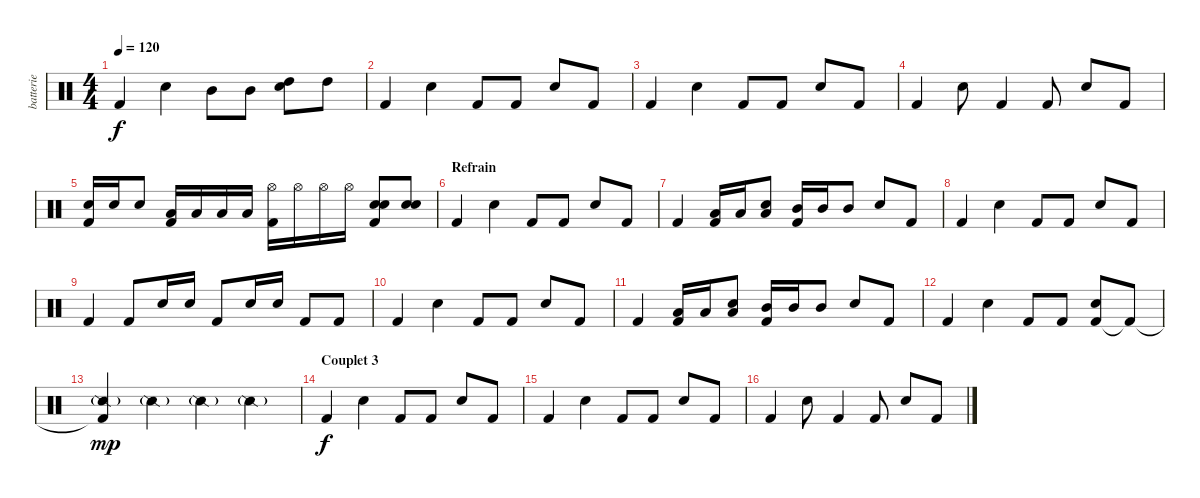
\track ("batterie" "batterie") {instrument percussion}
\staff {score}
\articulation defaults
\ts (4 4)
\tempo 120
\clef neutral
\ks c "Kick (hit) 2".4{dy f} "Electric Snare (hit)".4 "Mid Tom (hit)".8 "Mid Tom (hit)".8
("Electric Snare (hit)" "High Tom (hit)").8 "High Tom (hit)".8 |
"Kick (hit) 2".4 "Electric Snare (hit)".4 "Kick (hit) 2".8 "Kick (hit) 2".8 "Electric Snare (hit)".8 "Kick (hit) 2".8 |
"Kick (hit) 2".4 "Electric Snare (hit)".4 "Kick (hit) 2".8 "Kick (hit) 2".8 "Electric Snare (hit)".8 "Kick (hit) 2".8 |
"Kick (hit) 2".4 "Electric Snare (hit)".8 "Kick (hit) 2".4 "Kick (hit) 2".8 "Electric Snare (hit)".8 "Kick (hit) 2".8 |
("Kick (hit) 2" "Electric Snare (hit)").16 "Electric Snare (hit)".16 "Electric Snare (hit)".8 ("Kick (hit) 2" "Low Tom (hit)").16 "Low Tom (hit)".16 "Low Tom (hit)".16 "Low Tom (hit)".16 ("Kick (hit) 2" "Hi-Hat (open)").16 "Hi-Hat (open)".16 "Hi-Hat (open)".16 "Hi-Hat (open)".16 ("Kick (hit) 2" "Electric Snare (hit)" "Electric Snare (hit)").8 ("Electric Snare (hit)" "Electric Snare (hit)").8 |
\section ("" "Refrain")
"Kick (hit) 2".4 "Electric Snare (hit)".4 "Kick (hit) 2".8 "Kick (hit) 2".8 "Electric Snare (hit)".8 "Kick (hit) 2".8 |
"Kick (hit) 2".4 ("Kick (hit) 2" "Low Tom (hit)").16 "Low Tom (hit)".16 ("Electric Snare (hit)" "Low Tom (hit)").8 ("Kick (hit) 2" "Mid Tom (hit)").16 "Mid Tom (hit)".16 "Mid Tom (hit)".8 "Electric Snare (hit)".8 "Kick (hit) 2".8 |
"Kick (hit) 2".4 "Electric Snare (hit)".4 "Kick (hit) 2".8 "Kick (hit) 2".8 "Electric Snare (hit)".8 "Kick (hit) 2".8 |
"Kick (hit) 2".4 "Kick (hit) 2".8 "Electric Snare (hit)".16 "Electric Snare (hit)".16 "Kick (hit) 2".8 "Electric Snare (hit)".16 "Electric Snare (hit)".16 "Kick (hit) 2".8 "Kick (hit) 2".8 |
"Kick (hit) 2".4 "Electric Snare (hit)".4 "Kick (hit) 2".8 "Kick (hit) 2".8 "Electric Snare (hit)".8 "Kick (hit) 2".8 |
"Kick (hit) 2".4 ("Kick (hit) 2" "Low Tom (hit)").16 "Low Tom (hit)".16 ("Electric Snare (hit)" "Low Tom (hit)").8 ("Kick (hit) 2" "Mid Tom (hit)").16 "Mid Tom (hit)".16 "Mid Tom (hit)".8 "Electric Snare (hit)".8 "Kick (hit) 2".8 |
"Kick (hit) 2".4 "Electric Snare (hit)".4 "Kick (hit) 2".8 "Kick (hit) 2".8 ("Kick (hit) 2" "Electric Snare (hit)").8 "Kick (hit) 2"{t}.8 |
("Kick (hit) 2"{t} "Snare (side stick) 2"{g}).4{dy mp} "Snare (side stick) 2"{g}.4 "Snare (side stick) 2"{g}.4 "Snare (side stick) 2"{g}.4 |
\section ("" "Couplet 3")
"Kick (hit) 2".4{dy f} "Electric Snare (hit)".4 "Kick (hit) 2".8 "Kick (hit) 2".8 "Electric Snare (hit)".8 "Kick (hit) 2".8 |
"Kick (hit) 2".4 "Electric Snare (hit)".4 "Kick (hit) 2".8 "Kick (hit) 2".8 "Electric Snare (hit)".8 "Kick (hit) 2".8 |
"Kick (hit) 2".4 "Electric Snare (hit)".8 "Kick (hit) 2".4 "Kick (hit) 2".8 "Electric Snare (hit)".8 "Kick (hit) 2".8
